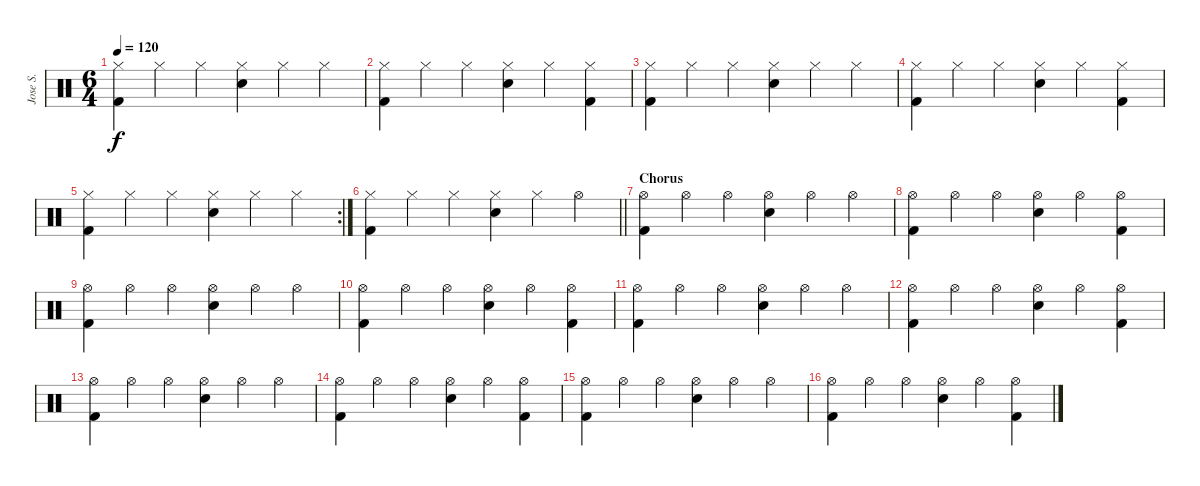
\track ("Jose S." "Jose S.") {instrument percussion}
\staff {score}
\articulation defaults
\ts (6 4)
\tempo 120
\clef neutral
\ks c
("Hi-Hat (closed)" "Kick (hit) 2").4{dy f} "Hi-Hat (closed)".4 "Hi-Hat (closed)".4 ("Hi-Hat (closed)" "Snare (hit) 2").4 "Hi-Hat (closed)".4 "Hi-Hat (closed)".4 |
("Hi-Hat (closed)" "Kick (hit) 2").4 "Hi-Hat (closed)".4 "Hi-Hat (closed)".4 ("Hi-Hat (closed)" "Snare (hit) 2").4 "Hi-Hat (closed)".4 ("Hi-Hat (closed)" "Kick (hit) 2").4 |
("Hi-Hat (closed)" "Kick (hit) 2").4 "Hi-Hat (closed)".4 "Hi-Hat (closed)".4 ("Hi-Hat (closed)" "Snare (hit) 2").4 "Hi-Hat (closed)".4 "Hi-Hat (closed)".4 |
("Hi-Hat (closed)" "Kick (hit) 2").4 "Hi-Hat (closed)".4 "Hi-Hat (closed)".4 ("Hi-Hat (closed)" "Snare (hit) 2").4 "Hi-Hat (closed)".4 ("Hi-Hat (closed)" "Kick (hit) 2").4 |
\rc 2
("Hi-Hat (closed)" "Kick (hit) 2").4 "Hi-Hat (closed)".4 "Hi-Hat (closed)".4 ("Hi-Hat (closed)" "Snare (hit) 2").4 "Hi-Hat (closed)".4 "Hi-Hat (closed)".4 |
\barLineRight lightlight
("Hi-Hat (closed)" "Kick (hit) 2").4 "Hi-Hat (closed)".4 "Hi-Hat (closed)".4 ("Hi-Hat (closed)" "Snare (hit) 2").4 "Hi-Hat (closed)".4 "Hi-Hat (open)".4 |
\section ("" "Chorus")
("Hi-Hat (open)" "Kick (hit) 2").4{volume 10} "Hi-Hat (open)".4 "Hi-Hat (open)".4 ("Hi-Hat (open)" "Snare (hit) 2").4 "Hi-Hat (open)".4 "Hi-Hat (open)".4 |
("Hi-Hat (open)" "Kick (hit) 2").4 "Hi-Hat (open)".4 "Hi-Hat (open)".4 ("Hi-Hat (open)" "Snare (hit) 2").4 "Hi-Hat (open)".4 ("Hi-Hat (open)" "Kick (hit) 2").4 |
("Hi-Hat (open)" "Kick (hit) 2").4 "Hi-Hat (open)".4 "Hi-Hat (open)".4 ("Hi-Hat (open)" "Snare (hit) 2").4 "Hi-Hat (open)".4 "Hi-Hat (open)".4 |
("Hi-Hat (open)" "Kick (hit) 2").4 "Hi-Hat (open)".4 "Hi-Hat (open)".4 ("Hi-Hat (open)" "Snare (hit) 2").4 "Hi-Hat (open)".4 ("Hi-Hat (open)" "Kick (hit) 2").4 |
("Hi-Hat (open)" "Kick (hit) 2").4 "Hi-Hat (open)".4 "Hi-Hat (open)".4 ("Hi-Hat (open)" "Snare (hit) 2").4 "Hi-Hat (open)".4 "Hi-Hat (open)".4 |
("Hi-Hat (open)" "Kick (hit) 2").4 "Hi-Hat (open)".4 "Hi-Hat (open)".4 ("Hi-Hat (open)" "Snare (hit) 2").4 "Hi-Hat (open)".4 ("Hi-Hat (open)" "Kick (hit) 2").4 |
("Hi-Hat (open)" "Kick (hit) 2").4 "Hi-Hat (open)".4 "Hi-Hat (open)".4 ("Hi-Hat (open)" "Snare (hit) 2").4 "Hi-Hat (open)".4 "Hi-Hat (open)".4 |
("Hi-Hat (open)" "Kick (hit) 2").4 "Hi-Hat (open)".4 "Hi-Hat (open)".4 ("Hi-Hat (open)" "Snare (hit) 2").4 "Hi-Hat (open)".4 ("Hi-Hat (open)" "Kick (hit) 2").4 |
("Hi-Hat (open)" "Kick (hit) 2").4 "Hi-Hat (open)".4 "Hi-Hat (open)".4 ("Hi-Hat (open)" "Snare (hit) 2").4 "Hi-Hat (open)".4 "Hi-Hat (open)".4 |
("Hi-Hat (open)" "Kick (hit) 2").4 "Hi-Hat (open)".4 "Hi-Hat (open)".4 ("Hi-Hat (open)" "Snare (hit) 2").4 "Hi-Hat (open)".4 ("Hi-Hat (open)" "Kick (hit) 2").4
